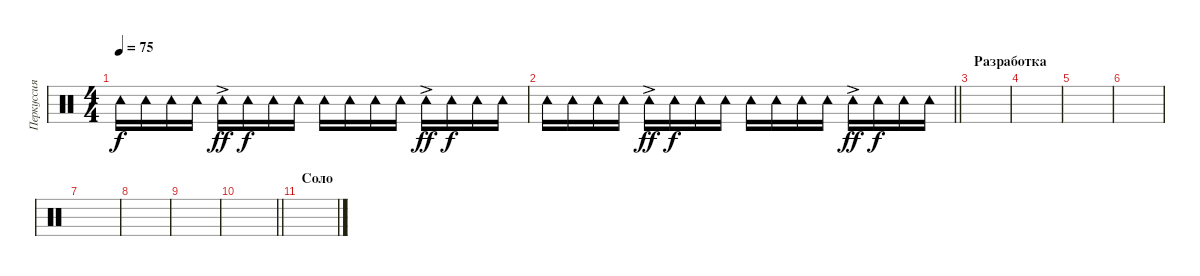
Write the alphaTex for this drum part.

\track ("Перкуссия" "Перкуссия") {instrument percussion}
\staff {score}
\articulation defaults
\ts (4 4)
\tempo 75
\clef neutral
\ks c "Tambourine (hit)".16{dy f} "Tambourine (hit)".16 "Tambourine (hit)".16 "Tambourine (hit)".16 "Tambourine (hit)"{ac}.16{dy ff} "Tambourine (hit)".16{dy f} "Tambourine (hit)".16 "Tambourine (hit)".16 "Tambourine (hit)".16 "Tambourine (hit)".16 "Tambourine (hit)".16 "Tambourine (hit)".16 "Tambourine (hit)"{ac}.16{dy ff} "Tambourine (hit)".16{dy f} "Tambourine (hit)".16 "Tambourine (hit)".16
|
\barLineRight lightlight "Tambourine (hit)".16 "Tambourine (hit)".16 "Tambourine (hit)".16 "Tambourine (hit)".16 "Tambourine (hit)"{ac}.16{dy ff} "Tambourine (hit)".16{dy f} "Tambourine (hit)".16 "Tambourine (hit)".16 "Tambourine (hit)".16 "Tambourine (hit)".16 "Tambourine (hit)".16 "Tambourine (hit)".16 "Tambourine (hit)"{ac}.16{dy ff} "Tambourine (hit)".16{dy f} "Tambourine (hit)".16 "Tambourine (hit)".16
|
\section ("" "Разработка")
|
|
|
|
|
|
|
\barLineRight lightlight
|
\section ("" "Соло")
